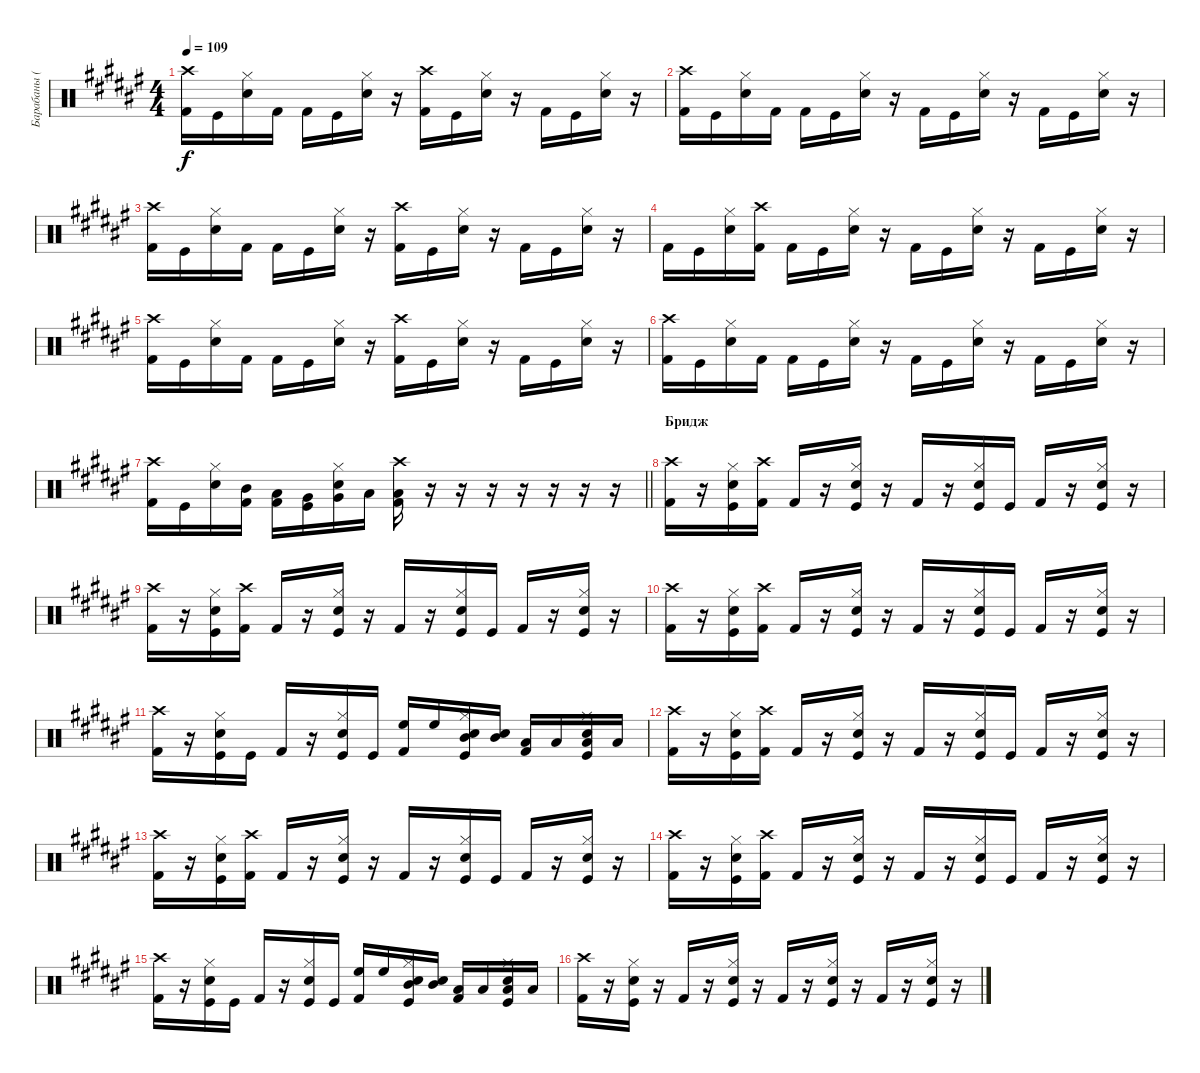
\track ("Барабаны (Н.Лысов)" "Барабаны (") {instrument percussion}
\staff {score}
\articulation defaults
\ts (4 4)
\tempo 109
\clef neutral
\ks f#
("Crash high (hit)" "Kick (hit) 2").16{dy f} "Kick (hit)".16 ("Hi-Hat (closed)" "Snare (hit) 2").16 "Kick (hit) 2".16 "Kick (hit) 2".16 "Kick (hit)".16 ("Hi-Hat (closed)" "Snare (hit) 2").16 r.16 ("Crash high (hit)" "Kick (hit) 2").16 "Kick (hit)".16 ("Hi-Hat (closed)" "Snare (hit) 2").16 r.16 "Kick (hit) 2".16 "Kick (hit)".16 ("Hi-Hat (closed)" "Snare (hit) 2").16 r.16 |
("Crash high (hit)" "Kick (hit) 2").16 "Kick (hit)".16 ("Hi-Hat (closed)" "Snare (hit) 2").16 "Kick (hit) 2".16 "Kick (hit) 2".16 "Kick (hit)".16 ("Hi-Hat (closed)" "Snare (hit) 2").16 r.16 "Kick (hit) 2".16 "Kick (hit)".16 ("Hi-Hat (closed)" "Snare (hit) 2").16 r.16 "Kick (hit) 2".16 "Kick (hit)".16 ("Hi-Hat (closed)" "Snare (hit) 2").16 r.16 |
("Crash high (hit)" "Kick (hit) 2").16 "Kick (hit)".16 ("Hi-Hat (closed)" "Snare (hit) 2").16 "Kick (hit) 2".16 "Kick (hit) 2".16 "Kick (hit)".16 ("Hi-Hat (closed)" "Snare (hit) 2").16 r.16 ("Crash high (hit)" "Kick (hit) 2").16 "Kick (hit)".16 ("Hi-Hat (closed)" "Snare (hit) 2").16 r.16 "Kick (hit) 2".16 "Kick (hit)".16 ("Hi-Hat (closed)" "Snare (hit) 2").16 r.16 |
"Kick (hit) 2".16 "Kick (hit)".16 ("Hi-Hat (closed)" "Snare (hit) 2").16 ("Crash high (hit)" "Kick (hit) 2").16 "Kick (hit) 2".16 "Kick (hit)".16 ("Hi-Hat (closed)" "Snare (hit) 2").16 r.16 "Kick (hit) 2".16 "Kick (hit)".16 ("Hi-Hat (closed)" "Snare (hit) 2").16 r.16 "Kick (hit) 2".16 "Kick (hit)".16 ("Hi-Hat (closed)" "Snare (hit) 2").16 r.16 |
("Crash high (hit)" "Kick (hit) 2").16 "Kick (hit)".16 ("Hi-Hat (closed)" "Snare (hit) 2").16 "Kick (hit) 2".16 "Kick (hit) 2".16 "Kick (hit)".16 ("Hi-Hat (closed)" "Snare (hit) 2").16 r.16 ("Crash high (hit)" "Kick (hit) 2").16 "Kick (hit)".16 ("Hi-Hat (closed)" "Snare (hit) 2").16 r.16 "Kick (hit) 2".16 "Kick (hit)".16 ("Hi-Hat (closed)" "Snare (hit) 2").16 r.16 |
("Crash high (hit)" "Kick (hit) 2").16 "Kick (hit)".16 ("Hi-Hat (closed)" "Snare (hit) 2").16 "Kick (hit) 2".16 "Kick (hit) 2".16 "Kick (hit)".16 ("Hi-Hat (closed)" "Snare (hit) 2").16 r.16 "Kick (hit) 2".16 "Kick (hit)".16 ("Hi-Hat (closed)" "Snare (hit) 2").16 r.16 "Kick (hit) 2".16 "Kick (hit)".16 ("Hi-Hat (closed)" "Snare (hit) 2").16 r.16 |
\barLineRight lightlight
("Crash high (hit)" "Kick (hit) 2").16 "Kick (hit)".16 ("Hi-Hat (closed)" "Snare (hit) 2").16 ("Mid Tom (hit)" "Kick (hit) 2").16 ("Low Tom (hit)" "Kick (hit) 2").16 ("Very Low Tom (hit)" "Kick (hit)").16 ("Hi-Hat (closed)" "Snare (hit) 2" "Very Low Tom (hit)").16 "Low Floor Tom (hit)".16 ("Crash high (hit)" "Low Floor Tom (hit)" "Kick (hit) 2").16 r.16 r.16 r.16 r.16 r.16 r.16 r.16 |
\section ("" "Бридж")
("Crash high (hit)" "Kick (hit) 2").16 r.16 ("Hi-Hat (closed)" "Snare (hit) 2" "Kick (hit)").16 ("Crash high (hit)" "Kick (hit) 2").16 "Kick (hit) 2".16 r.16 ("Hi-Hat (closed)" "Snare (hit) 2" "Kick (hit)").16 r.16 "Kick (hit) 2".16 r.16 ("Hi-Hat (closed)" "Snare (hit) 2" "Kick (hit)").16 "Kick (hit)".16 "Kick (hit) 2".16 r.16 ("Hi-Hat (closed)" "Snare (hit) 2" "Kick (hit)").16 r.16 |
("Crash high (hit)" "Kick (hit) 2").16 r.16 ("Hi-Hat (closed)" "Snare (hit) 2" "Kick (hit)").16 ("Crash high (hit)" "Kick (hit) 2").16 "Kick (hit) 2".16 r.16 ("Hi-Hat (closed)" "Snare (hit) 2" "Kick (hit)").16 r.16 "Kick (hit) 2".16 r.16 ("Hi-Hat (closed)" "Snare (hit) 2" "Kick (hit)").16 "Kick (hit)".16 "Kick (hit) 2".16 r.16 ("Hi-Hat (closed)" "Snare (hit) 2" "Kick (hit)").16 r.16 |
("Crash high (hit)" "Kick (hit) 2").16 r.16 ("Hi-Hat (closed)" "Snare (hit) 2" "Kick (hit)").16 ("Crash high (hit)" "Kick (hit) 2").16 "Kick (hit) 2".16 r.16 ("Hi-Hat (closed)" "Snare (hit) 2" "Kick (hit)").16 r.16 "Kick (hit) 2".16 r.16 ("Hi-Hat (closed)" "Snare (hit) 2" "Kick (hit)").16 "Kick (hit)".16 "Kick (hit) 2".16 r.16 ("Hi-Hat (closed)" "Snare (hit) 2" "Kick (hit)").16 r.16 |
("Crash high (hit)" "Kick (hit) 2").16 r.16 ("Hi-Hat (closed)" "Snare (hit) 2" "Kick (hit)").16 "Kick (hit)".16 "Kick (hit) 2".16 r.16 ("Hi-Hat (closed)" "Snare (hit) 2" "Kick (hit)").16 "Kick (hit)".16 ("High Floor Tom (hit)" "Kick (hit) 2").16 "High Floor Tom (hit)".16 ("Hi-Hat (closed)" "Snare (hit) 2" "Mid Tom (hit)" "Kick (hit)").16 ("Snare (hit) 2" "Mid Tom (hit)").16 ("Low Tom (hit)" "Kick (hit) 2").16 "Low Tom (hit)".16 ("Hi-Hat (closed)" "Snare (hit) 2" "Low Floor Tom (hit)" "Kick (hit)").16 "Low Floor Tom (hit)".16 |
("Crash high (hit)" "Kick (hit) 2").16 r.16 ("Hi-Hat (closed)" "Snare (hit) 2" "Kick (hit)").16 ("Crash high (hit)" "Kick (hit) 2").16 "Kick (hit) 2".16 r.16 ("Hi-Hat (closed)" "Snare (hit) 2" "Kick (hit)").16 r.16 "Kick (hit) 2".16 r.16 ("Hi-Hat (closed)" "Snare (hit) 2" "Kick (hit)").16 "Kick (hit)".16 "Kick (hit) 2".16 r.16 ("Hi-Hat (closed)" "Snare (hit) 2" "Kick (hit)").16 r.16 |
("Crash high (hit)" "Kick (hit) 2").16 r.16 ("Hi-Hat (closed)" "Snare (hit) 2" "Kick (hit)").16 ("Crash high (hit)" "Kick (hit) 2").16 "Kick (hit) 2".16 r.16 ("Hi-Hat (closed)" "Snare (hit) 2" "Kick (hit)").16 r.16 "Kick (hit) 2".16 r.16 ("Hi-Hat (closed)" "Snare (hit) 2" "Kick (hit)").16 "Kick (hit)".16 "Kick (hit) 2".16 r.16 ("Hi-Hat (closed)" "Snare (hit) 2" "Kick (hit)").16 r.16 |
("Crash high (hit)" "Kick (hit) 2").16 r.16 ("Hi-Hat (closed)" "Snare (hit) 2" "Kick (hit)").16 ("Crash high (hit)" "Kick (hit) 2").16 "Kick (hit) 2".16 r.16 ("Hi-Hat (closed)" "Snare (hit) 2" "Kick (hit)").16 r.16 "Kick (hit) 2".16 r.16 ("Hi-Hat (closed)" "Snare (hit) 2" "Kick (hit)").16 "Kick (hit)".16 "Kick (hit) 2".16 r.16 ("Hi-Hat (closed)" "Snare (hit) 2" "Kick (hit)").16 r.16 |
("Crash high (hit)" "Kick (hit) 2").16 r.16 ("Hi-Hat (closed)" "Snare (hit) 2" "Kick (hit)").16 "Kick (hit)".16 "Kick (hit) 2".16 r.16 ("Hi-Hat (closed)" "Snare (hit) 2" "Kick (hit)").16 "Kick (hit)".16 ("High Floor Tom (hit)" "Kick (hit) 2").16 "High Floor Tom (hit)".16 ("Hi-Hat (closed)" "Snare (hit) 2" "Mid Tom (hit)" "Kick (hit)").16 ("Snare (hit) 2" "Mid Tom (hit)").16 ("Low Tom (hit)" "Kick (hit) 2").16 "Low Tom (hit)".16 ("Hi-Hat (closed)" "Snare (hit) 2" "Low Floor Tom (hit)" "Kick (hit)").16 "Low Floor Tom (hit)".16 |
("Crash high (hit)" "Kick (hit) 2").16 r.16 ("Hi-Hat (closed)" "Snare (hit) 2" "Kick (hit)").16 r.16 "Kick (hit) 2".16 r.16 ("Hi-Hat (closed)" "Snare (hit) 2" "Kick (hit)").16 r.16 "Kick (hit) 2".16 r.16 ("Hi-Hat (closed)" "Snare (hit) 2" "Kick (hit)").16 r.16 "Kick (hit) 2".16 r.16 ("Hi-Hat (closed)" "Snare (hit) 2" "Kick (hit)").16 r.16
